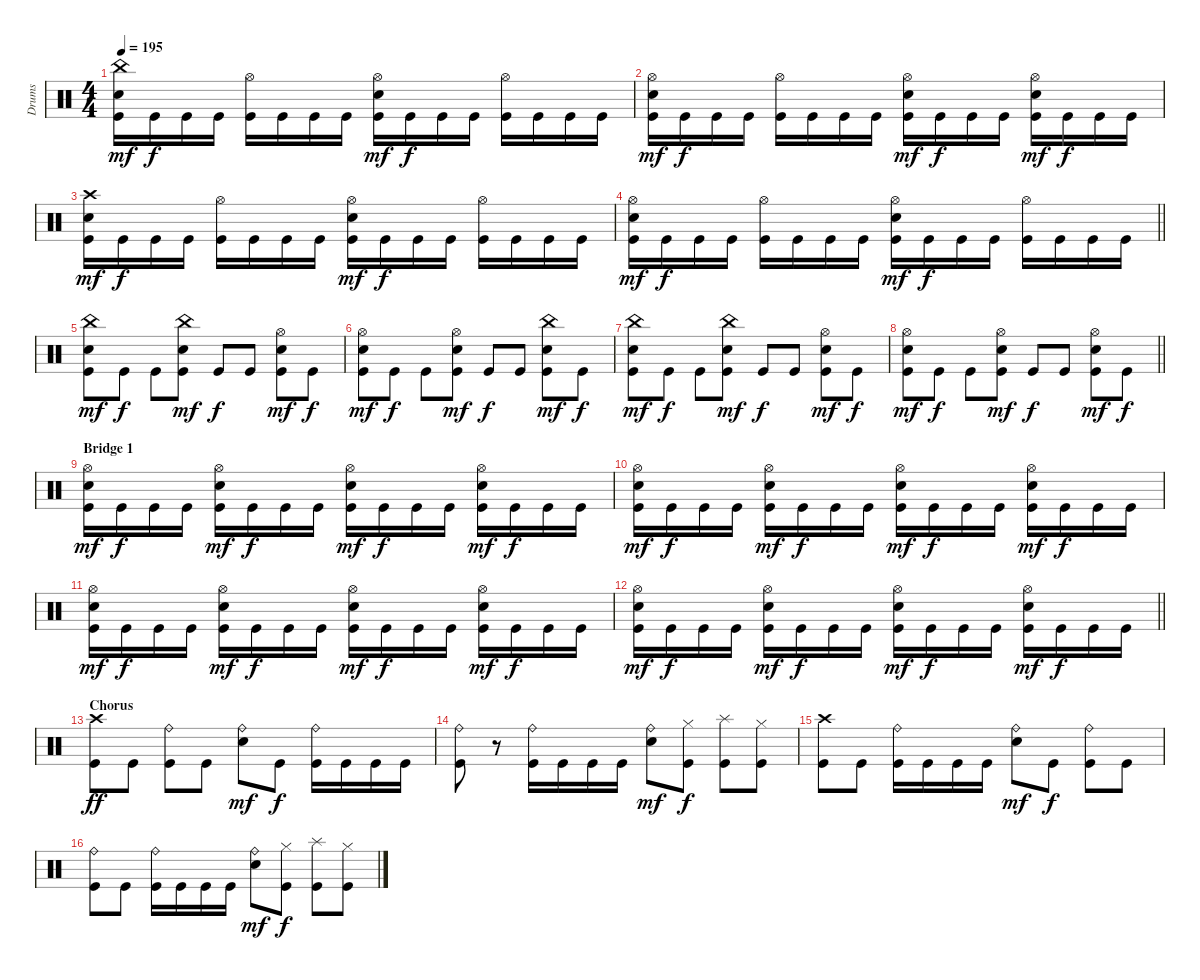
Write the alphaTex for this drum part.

\track ("Drums" "Drums") {instrument percussion}
\staff {score}
\articulation defaults
\ts (4 4)
\tempo 195
\clef neutral
\ks c
("China (hit)" "Snare (hit) 2" "Kick (hit)").16{dy mf} "Kick (hit)".16{dy f} "Kick (hit)".16 "Kick (hit)".16 ("Hi-Hat (open)" "Kick (hit)").16 "Kick (hit)".16 "Kick (hit)".16 "Kick (hit)".16 ("Hi-Hat (open)" "Snare (hit) 2" "Kick (hit)").16{dy mf} "Kick (hit)".16{dy f} "Kick (hit)".16 "Kick (hit)".16 ("Hi-Hat (open)" "Kick (hit)").16 "Kick (hit)".16 "Kick (hit)".16 "Kick (hit)".16 |
("Hi-Hat (open)" "Snare (hit) 2" "Kick (hit)").16{dy mf} "Kick (hit)".16{dy f} "Kick (hit)".16 "Kick (hit)".16 ("Hi-Hat (open)" "Kick (hit)").16 "Kick (hit)".16 "Kick (hit)".16 "Kick (hit)".16 ("Hi-Hat (open)" "Snare (hit) 2" "Kick (hit)").16{dy mf} "Kick (hit)".16{dy f} "Kick (hit)".16 "Kick (hit)".16 ("Hi-Hat (open)" "Snare (hit) 2" "Kick (hit)").16{dy mf} "Kick (hit)".16{dy f} "Kick (hit)".16 "Kick (hit)".16 |
("Crash high (hit)" "Snare (hit) 2" "Kick (hit)").16{dy mf} "Kick (hit)".16{dy f} "Kick (hit)".16 "Kick (hit)".16 ("Hi-Hat (open)" "Kick (hit)").16 "Kick (hit)".16 "Kick (hit)".16 "Kick (hit)".16 ("Hi-Hat (open)" "Snare (hit) 2" "Kick (hit)").16{dy mf} "Kick (hit)".16{dy f} "Kick (hit)".16 "Kick (hit)".16 ("Hi-Hat (open)" "Kick (hit)").16 "Kick (hit)".16 "Kick (hit)".16 "Kick (hit)".16 |
\barLineRight lightlight
("Hi-Hat (open)" "Snare (hit) 2" "Kick (hit)").16{dy mf} "Kick (hit)".16{dy f} "Kick (hit)".16 "Kick (hit)".16 ("Hi-Hat (open)" "Kick (hit)").16 "Kick (hit)".16 "Kick (hit)".16 "Kick (hit)".16 ("Hi-Hat (open)" "Snare (hit) 2" "Kick (hit)").16{dy mf} "Kick (hit)".16{dy f} "Kick (hit)".16 "Kick (hit)".16 ("Hi-Hat (open)" "Kick (hit)").16 "Kick (hit)".16 "Kick (hit)".16 "Kick (hit)".16 |
("China (hit)" "Snare (hit) 2" "Kick (hit)").8{dy mf} "Kick (hit)".8{dy f} "Kick (hit)".8 ("China (hit)" "Snare (hit) 2" "Kick (hit)").8{dy mf} "Kick (hit)".8{dy f} "Kick (hit)".8 ("Hi-Hat (open)" "Snare (hit) 2" "Kick (hit)").8{dy mf} "Kick (hit)".8{dy f} |
("Hi-Hat (open)" "Snare (hit) 2" "Kick (hit)").8{dy mf} "Kick (hit)".8{dy f} "Kick (hit)".8 ("Hi-Hat (open)" "Snare (hit) 2" "Kick (hit)").8{dy mf} "Kick (hit)".8{dy f} "Kick (hit)".8 ("China (hit)" "Snare (hit) 2" "Kick (hit)").8{dy mf} "Kick (hit)".8{dy f} |
("China (hit)" "Snare (hit) 2" "Kick (hit)").8{dy mf} "Kick (hit)".8{dy f} "Kick (hit)".8 ("China (hit)" "Snare (hit) 2" "Kick (hit)").8{dy mf} "Kick (hit)".8{dy f} "Kick (hit)".8 ("Hi-Hat (open)" "Snare (hit) 2" "Kick (hit)").8{dy mf} "Kick (hit)".8{dy f} |
\barLineRight lightlight
("Hi-Hat (open)" "Snare (hit) 2" "Kick (hit)").8{dy mf} "Kick (hit)".8{dy f} "Kick (hit)".8 ("Hi-Hat (open)" "Snare (hit) 2" "Kick (hit)").8{dy mf} "Kick (hit)".8{dy f} "Kick (hit)".8 ("Hi-Hat (open)" "Snare (hit) 2" "Kick (hit)").8{dy mf} "Kick (hit)".8{dy f} |
\section ("" "Bridge 1")
("Hi-Hat (open)" "Snare (hit) 2" "Kick (hit)").16{dy mf} "Kick (hit)".16{dy f} "Kick (hit)".16 "Kick (hit)".16 ("Hi-Hat (open)" "Snare (hit) 2" "Kick (hit)").16{dy mf} "Kick (hit)".16{dy f} "Kick (hit)".16 "Kick (hit)".16 ("Hi-Hat (open)" "Snare (hit) 2" "Kick (hit)").16{dy mf} "Kick (hit)".16{dy f} "Kick (hit)".16 "Kick (hit)".16 ("Hi-Hat (open)" "Snare (hit) 2" "Kick (hit)").16{dy mf} "Kick (hit)".16{dy f} "Kick (hit)".16 "Kick (hit)".16 |
("Hi-Hat (open)" "Snare (hit) 2" "Kick (hit)").16{dy mf} "Kick (hit)".16{dy f} "Kick (hit)".16 "Kick (hit)".16 ("Hi-Hat (open)" "Snare (hit) 2" "Kick (hit)").16{dy mf} "Kick (hit)".16{dy f} "Kick (hit)".16 "Kick (hit)".16 ("Hi-Hat (open)" "Snare (hit) 2" "Kick (hit)").16{dy mf} "Kick (hit)".16{dy f} "Kick (hit)".16 "Kick (hit)".16 ("Hi-Hat (open)" "Snare (hit) 2" "Kick (hit)").16{dy mf} "Kick (hit)".16{dy f} "Kick (hit)".16 "Kick (hit)".16 |
("Hi-Hat (open)" "Snare (hit) 2" "Kick (hit)").16{dy mf} "Kick (hit)".16{dy f} "Kick (hit)".16 "Kick (hit)".16 ("Hi-Hat (open)" "Snare (hit) 2" "Kick (hit)").16{dy mf} "Kick (hit)".16{dy f} "Kick (hit)".16 "Kick (hit)".16 ("Hi-Hat (open)" "Snare (hit) 2" "Kick (hit)").16{dy mf} "Kick (hit)".16{dy f} "Kick (hit)".16 "Kick (hit)".16 ("Hi-Hat (open)" "Snare (hit) 2" "Kick (hit)").16{dy mf} "Kick (hit)".16{dy f} "Kick (hit)".16 "Kick (hit)".16 |
\barLineRight lightlight
("Hi-Hat (open)" "Snare (hit) 2" "Kick (hit)").16{dy mf} "Kick (hit)".16{dy f} "Kick (hit)".16 "Kick (hit)".16 ("Hi-Hat (open)" "Snare (hit) 2" "Kick (hit)").16{dy mf} "Kick (hit)".16{dy f} "Kick (hit)".16 "Kick (hit)".16 ("Hi-Hat (open)" "Snare (hit) 2" "Kick (hit)").16{dy mf} "Kick (hit)".16{dy f} "Kick (hit)".16 "Kick (hit)".16 ("Hi-Hat (open)" "Snare (hit) 2" "Kick (hit)").16{dy mf} "Kick (hit)".16{dy f} "Kick (hit)".16 "Kick (hit)".16 |
\section ("" "Chorus")
("Crash high (hit)" "Kick (hit)").8{dy ff} "Kick (hit)".8 ("Ride (bell)" "Kick (hit)").8 "Kick (hit)".8 ("Ride (bell)" "Snare (hit) 2").8{dy mf} "Kick (hit)".8{dy f} ("Ride (bell)" "Kick (hit)").16 "Kick (hit)".16 "Kick (hit)".16 "Kick (hit)".16 |
("Ride (bell)" "Kick (hit)").8 r.8 ("Ride (bell)" "Kick (hit)").16 "Kick (hit)".16 "Kick (hit)".16 "Kick (hit)".16 ("Ride (bell)" "Snare (hit) 2").8{dy mf} ("Hi-Hat (closed)" "Kick (hit)").8{dy f} ("Splash (hit)" "Kick (hit)").8 ("Hi-Hat (closed)" "Kick (hit)").8 |
("Crash high (hit)" "Kick (hit)").8 "Kick (hit)".8 ("Ride (bell)" "Kick (hit)").16 "Kick (hit)".16 "Kick (hit)".16 "Kick (hit)".16 ("Ride (bell)" "Snare (hit) 2").8{dy mf} "Kick (hit)".8{dy f} ("Ride (bell)" "Kick (hit)").8 "Kick (hit)".8 |
("Ride (bell)" "Kick (hit)").8 "Kick (hit)".8 ("Ride (bell)" "Kick (hit)").16 "Kick (hit)".16 "Kick (hit)".16 "Kick (hit)".16 ("Ride (bell)" "Snare (hit) 2").8{dy mf} ("Hi-Hat (closed)" "Kick (hit)").8{dy f} ("Splash (hit)" "Kick (hit)").8 ("Hi-Hat (closed)" "Kick (hit)").8
